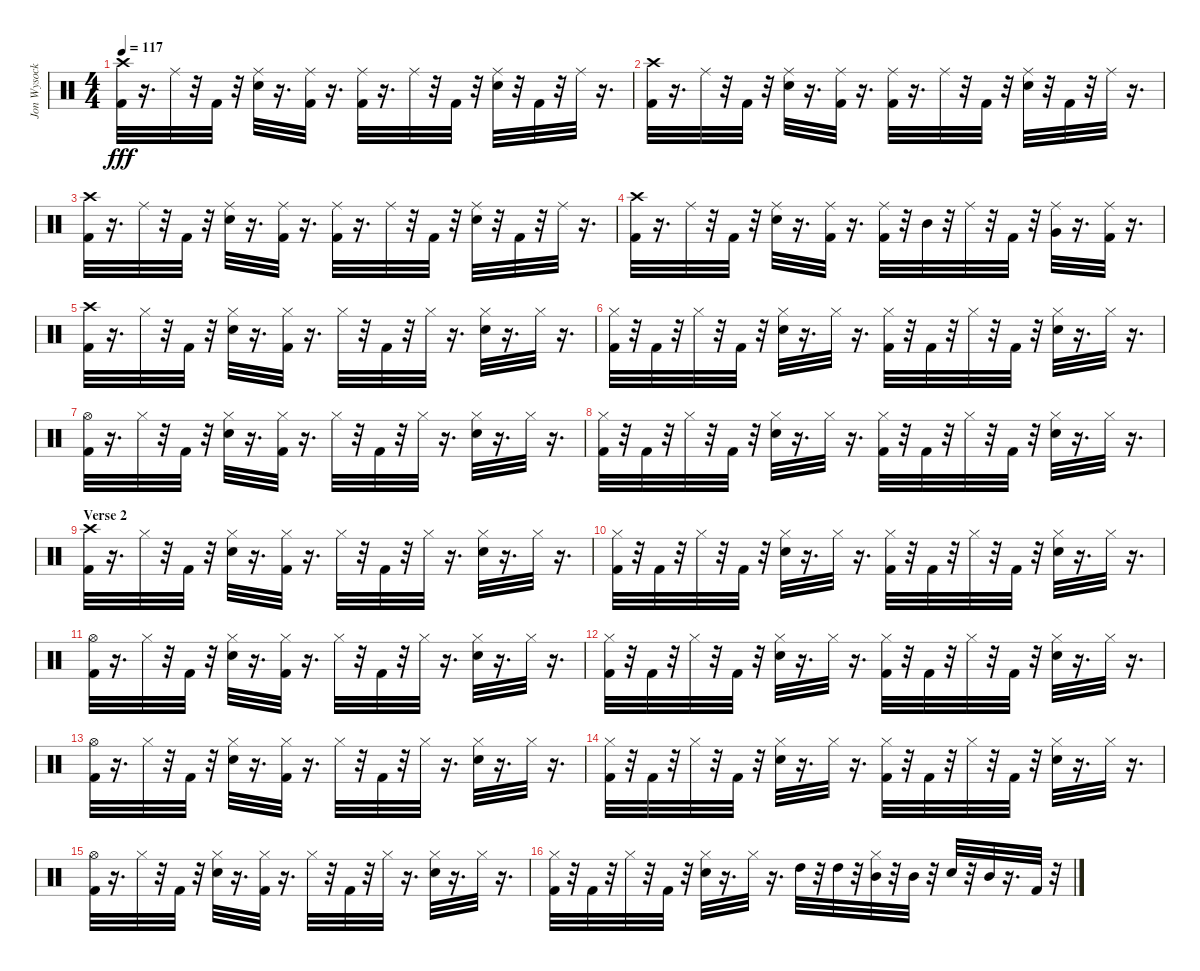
\track ("Jon Wysocki - Drums" "Jon Wysock") {instrument percussion}
\staff {score}
\articulation defaults
\ts (4 4)
\tempo 117
\clef neutral
\ks c
("Kick (hit) 2" "Crash high (hit)").32{dy fff} r.16{d} "Ride (middle)".32 r.32 "Kick (hit) 2".32 r.32 ("Ride (middle)" "Electric Snare (hit)").32 r.16{d} ("Ride (middle)" "Kick (hit) 2").32 r.16{d} ("Ride (middle)" "Kick (hit) 2").32 r.16{d} "Ride (middle)".32 r.32 "Kick (hit) 2".32 r.32 ("Ride (middle)" "Electric Snare (hit)").32 r.32 "Kick (hit) 2".32 r.32 "Ride (middle)".32 r.16{d} |
("Crash high (hit)" "Kick (hit) 2").32 r.16{d} "Ride (middle)".32 r.32 "Kick (hit) 2".32 r.32 ("Electric Snare (hit)" "Ride (middle)").32 r.16{d} ("Kick (hit) 2" "Ride (middle)").32 r.16{d} ("Kick (hit) 2" "Ride (middle)").32 r.16{d} "Ride (middle)".32 r.32 "Kick (hit) 2".32 r.32 ("Electric Snare (hit)" "Ride (middle)").32 r.32 "Kick (hit) 2".32 r.32 "Ride (middle)".32 r.16{d} |
("Crash high (hit)" "Kick (hit) 2").32 r.16{d} "Ride (middle)".32 r.32 "Kick (hit) 2".32 r.32 ("Electric Snare (hit)" "Ride (middle)").32 r.16{d} ("Kick (hit) 2" "Ride (middle)").32 r.16{d} ("Kick (hit) 2" "Ride (middle)").32 r.16{d} "Ride (middle)".32 r.32 "Kick (hit) 2".32 r.32 ("Electric Snare (hit)" "Ride (middle)").32 r.32 "Kick (hit) 2".32 r.32 "Ride (middle)".32 r.16{d} |
("Crash high (hit)" "Kick (hit) 2").32 r.16{d} "Ride (middle)".32 r.32 "Kick (hit) 2".32 r.32 ("Ride (middle)" "Electric Snare (hit)").32 r.16{d} ("Ride (middle)" "Kick (hit) 2").32 r.16{d} ("Ride (middle)" "Kick (hit) 2").32 r.32 "Mid Tom (hit)".32 r.32 "Ride (middle)".32 r.32 "Kick (hit) 2".32 r.32 ("Very Low Tom (hit)" "Ride (middle)").32 r.16{d} ("Kick (hit) 2" "Ride (middle)").32 r.16{d} |
("Crash high (hit)" "Kick (hit) 2").32 r.16{d} "Hi-Hat (closed)".32 r.32 "Kick (hit) 2".32 r.32 ("Electric Snare (hit)" "Hi-Hat (closed)").32 r.16{d} ("Hi-Hat (closed)" "Kick (hit) 2").32 r.16{d} "Hi-Hat (closed)".32 r.32 "Kick (hit) 2".32 r.32 "Hi-Hat (closed)".32 r.16{d} ("Electric Snare (hit)" "Hi-Hat (closed)").32 r.16{d} "Hi-Hat (closed)".32 r.16{d} |
("Hi-Hat (closed)" "Kick (hit) 2").32 r.32 "Kick (hit) 2".32 r.32 "Hi-Hat (closed)".32 r.32 "Kick (hit) 2".32 r.32 ("Hi-Hat (closed)" "Electric Snare (hit)").32 r.16{d} "Hi-Hat (closed)".32 r.16{d} ("Hi-Hat (closed)" "Kick (hit) 2").32 r.32 "Kick (hit) 2".32 r.32 "Hi-Hat (closed)".32 r.32 "Kick (hit) 2".32 r.32 ("Hi-Hat (closed)" "Electric Snare (hit)").32 r.16{d} "Hi-Hat (closed)".32 r.16{d} |
("Kick (hit) 2" "Hi-Hat (open)").32 r.16{d} "Hi-Hat (closed)".32 r.32 "Kick (hit) 2".32 r.32 ("Electric Snare (hit)" "Hi-Hat (closed)").32 r.16{d} ("Hi-Hat (closed)" "Kick (hit) 2").32 r.16{d} "Hi-Hat (closed)".32 r.32 "Kick (hit) 2".32 r.32 "Hi-Hat (closed)".32 r.16{d} ("Electric Snare (hit)" "Hi-Hat (closed)").32 r.16{d} "Hi-Hat (closed)".32 r.16{d} |
("Hi-Hat (closed)" "Kick (hit) 2").32 r.32 "Kick (hit) 2".32 r.32 "Hi-Hat (closed)".32 r.32 "Kick (hit) 2".32 r.32 ("Hi-Hat (closed)" "Electric Snare (hit)").32 r.16{d} "Hi-Hat (closed)".32 r.16{d} ("Hi-Hat (closed)" "Kick (hit) 2").32 r.32 "Kick (hit) 2".32 r.32 "Hi-Hat (closed)".32 r.32 "Kick (hit) 2".32 r.32 ("Hi-Hat (closed)" "Electric Snare (hit)").32 r.16{d} "Hi-Hat (closed)".32 r.16{d} |
\section ("" "Verse 2")
("Crash high (hit)" "Kick (hit) 2").32 r.16{d} "Hi-Hat (closed)".32 r.32 "Kick (hit) 2".32 r.32 ("Electric Snare (hit)" "Hi-Hat (closed)").32 r.16{d} ("Hi-Hat (closed)" "Kick (hit) 2").32 r.16{d} "Hi-Hat (closed)".32 r.32 "Kick (hit) 2".32 r.32 "Hi-Hat (closed)".32 r.16{d} ("Electric Snare (hit)" "Hi-Hat (closed)").32 r.16{d} "Hi-Hat (closed)".32 r.16{d} |
("Hi-Hat (closed)" "Kick (hit) 2").32 r.32 "Kick (hit) 2".32 r.32 "Hi-Hat (closed)".32 r.32 "Kick (hit) 2".32 r.32 ("Hi-Hat (closed)" "Electric Snare (hit)").32 r.16{d} "Hi-Hat (closed)".32 r.16{d} ("Hi-Hat (closed)" "Kick (hit) 2").32 r.32 "Kick (hit) 2".32 r.32 "Hi-Hat (closed)".32 r.32 "Kick (hit) 2".32 r.32 ("Hi-Hat (closed)" "Electric Snare (hit)").32 r.16{d} "Hi-Hat (closed)".32 r.16{d} |
("Kick (hit) 2" "Hi-Hat (open)").32 r.16{d} "Hi-Hat (closed)".32 r.32 "Kick (hit) 2".32 r.32 ("Electric Snare (hit)" "Hi-Hat (closed)").32 r.16{d} ("Hi-Hat (closed)" "Kick (hit) 2").32 r.16{d} "Hi-Hat (closed)".32 r.32 "Kick (hit) 2".32 r.32 "Hi-Hat (closed)".32 r.16{d} ("Electric Snare (hit)" "Hi-Hat (closed)").32 r.16{d} "Hi-Hat (closed)".32 r.16{d} |
("Hi-Hat (closed)" "Kick (hit) 2").32 r.32 "Kick (hit) 2".32 r.32 "Hi-Hat (closed)".32 r.32 "Kick (hit) 2".32 r.32 ("Hi-Hat (closed)" "Electric Snare (hit)").32 r.16{d} "Hi-Hat (closed)".32 r.16{d} ("Hi-Hat (closed)" "Kick (hit) 2").32 r.32 "Kick (hit) 2".32 r.32 "Hi-Hat (closed)".32 r.32 "Kick (hit) 2".32 r.32 ("Hi-Hat (closed)" "Electric Snare (hit)").32 r.16{d} "Hi-Hat (closed)".32 r.16{d} |
("Kick (hit) 2" "Hi-Hat (open)").32 r.16{d} "Hi-Hat (closed)".32 r.32 "Kick (hit) 2".32 r.32 ("Electric Snare (hit)" "Hi-Hat (closed)").32 r.16{d} ("Hi-Hat (closed)" "Kick (hit) 2").32 r.16{d} "Hi-Hat (closed)".32 r.32 "Kick (hit) 2".32 r.32 "Hi-Hat (closed)".32 r.16{d} ("Electric Snare (hit)" "Hi-Hat (closed)").32 r.16{d} "Hi-Hat (closed)".32 r.16{d} |
("Hi-Hat (closed)" "Kick (hit) 2").32 r.32 "Kick (hit) 2".32 r.32 "Hi-Hat (closed)".32 r.32 "Kick (hit) 2".32 r.32 ("Hi-Hat (closed)" "Electric Snare (hit)").32 r.16{d} "Hi-Hat (closed)".32 r.16{d} ("Hi-Hat (closed)" "Kick (hit) 2").32 r.32 "Kick (hit) 2".32 r.32 "Hi-Hat (closed)".32 r.32 "Kick (hit) 2".32 r.32 ("Hi-Hat (closed)" "Electric Snare (hit)").32 r.16{d} "Hi-Hat (closed)".32 r.16{d} |
("Kick (hit) 2" "Hi-Hat (open)").32 r.16{d} "Hi-Hat (closed)".32 r.32 "Kick (hit) 2".32 r.32 ("Electric Snare (hit)" "Hi-Hat (closed)").32 r.16{d} ("Hi-Hat (closed)" "Kick (hit) 2").32 r.16{d} "Hi-Hat (closed)".32 r.32 "Kick (hit) 2".32 r.32 "Hi-Hat (closed)".32 r.16{d} ("Electric Snare (hit)" "Hi-Hat (closed)").32 r.16{d} "Hi-Hat (closed)".32 r.16{d} |
("Hi-Hat (closed)" "Kick (hit) 2").32 r.32 "Kick (hit) 2".32 r.32 "Hi-Hat (closed)".32 r.32 "Kick (hit) 2".32 r.32 ("Hi-Hat (closed)" "Electric Snare (hit)").32 r.16{d} "Hi-Hat (closed)".32 r.16{d} "High Tom (hit)".32 r.32 "High Tom (hit)".32 r.32 ("Hi-Hat (closed)" "Mid Tom (hit)").32 r.32 "Mid Tom (hit)".32 r.32 "Electric Snare (hit)".32 r.32 "Mid Tom (hit)".32 r.16{d} "Kick (hit) 2".32 r.32
